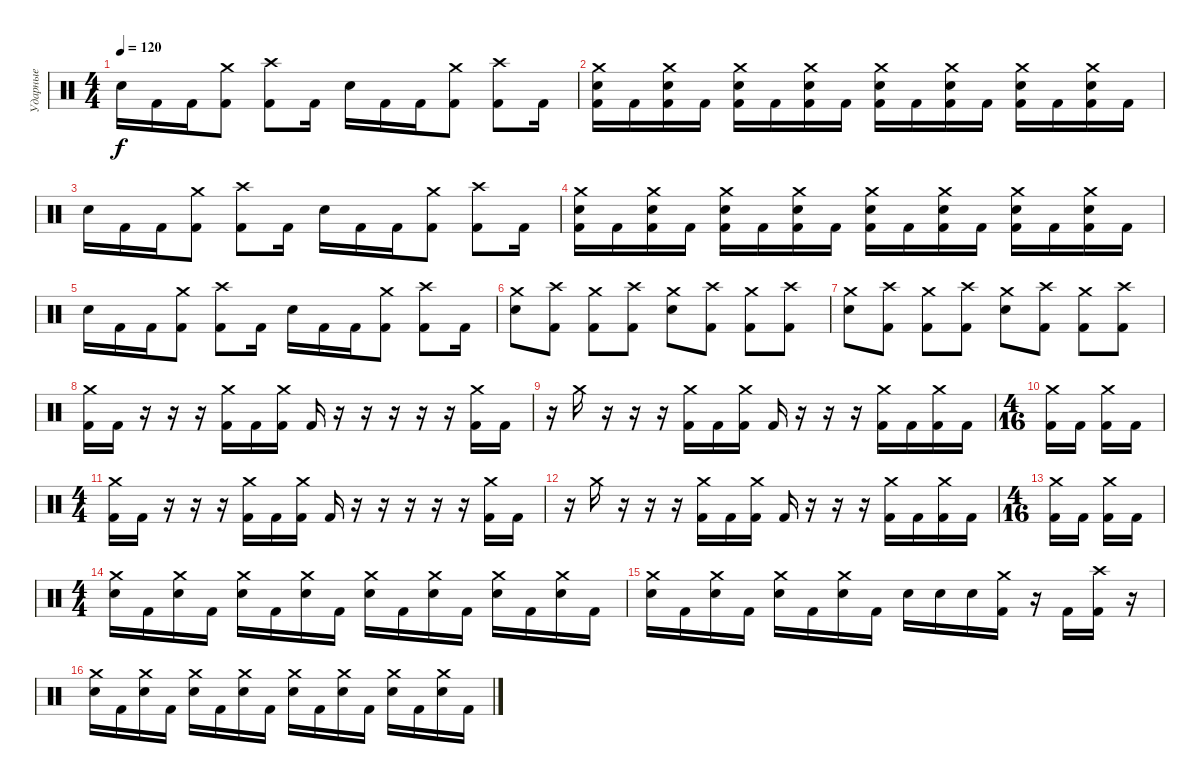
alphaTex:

\track ("Ударные" "Ударные") {instrument percussion}
\staff {score}
\articulation defaults
\ts (4 4)
\tempo 120
\clef neutral
\ks c "Electric Snare (hit)".16{dy f} "Kick (hit) 2".16 "Kick (hit) 2".16
("Crash medium (hit)" "Kick (hit) 2").8 ("Crash high (hit)" "Kick (hit) 2").8 "Kick (hit) 2".16 "Electric Snare (hit)".16 "Kick (hit) 2".16 "Kick (hit) 2".16 ("Crash medium (hit)" "Kick (hit) 2").8 ("Crash high (hit)" "Kick (hit) 2").8 "Kick (hit) 2".16 |
("Crash medium (hit)" "Electric Snare (hit)" "Kick (hit) 2").16 "Kick (hit) 2".16 ("Crash medium (hit)" "Electric Snare (hit)" "Kick (hit) 2").16 "Kick (hit) 2".16 ("Crash medium (hit)" "Electric Snare (hit)" "Kick (hit) 2").16 "Kick (hit) 2".16 ("Crash medium (hit)" "Electric Snare (hit)" "Kick (hit) 2").16 "Kick (hit) 2".16 ("Crash medium (hit)" "Electric Snare (hit)" "Kick (hit) 2").16 "Kick (hit) 2".16 ("Crash medium (hit)" "Electric Snare (hit)" "Kick (hit) 2").16 "Kick (hit) 2".16 ("Crash medium (hit)" "Electric Snare (hit)" "Kick (hit) 2").16 "Kick (hit) 2".16 ("Crash medium (hit)" "Electric Snare (hit)" "Kick (hit) 2").16 "Kick (hit) 2".16 |
"Electric Snare (hit)".16 "Kick (hit) 2".16 "Kick (hit) 2".16 ("Crash medium (hit)" "Kick (hit) 2").8 ("Crash high (hit)" "Kick (hit) 2").8 "Kick (hit) 2".16 "Electric Snare (hit)".16 "Kick (hit) 2".16 "Kick (hit) 2".16 ("Crash medium (hit)" "Kick (hit) 2").8 ("Crash high (hit)" "Kick (hit) 2").8 "Kick (hit) 2".16 |
("Crash medium (hit)" "Electric Snare (hit)" "Kick (hit) 2").16 "Kick (hit) 2".16 ("Crash medium (hit)" "Electric Snare (hit)" "Kick (hit) 2").16 "Kick (hit) 2".16 ("Crash medium (hit)" "Electric Snare (hit)" "Kick (hit) 2").16 "Kick (hit) 2".16 ("Crash medium (hit)" "Electric Snare (hit)" "Kick (hit) 2").16 "Kick (hit) 2".16 ("Crash medium (hit)" "Electric Snare (hit)" "Kick (hit) 2").16 "Kick (hit) 2".16 ("Crash medium (hit)" "Electric Snare (hit)" "Kick (hit) 2").16 "Kick (hit) 2".16 ("Crash medium (hit)" "Electric Snare (hit)" "Kick (hit) 2").16 "Kick (hit) 2".16 ("Crash medium (hit)" "Electric Snare (hit)" "Kick (hit) 2").16 "Kick (hit) 2".16 |
"Electric Snare (hit)".16 "Kick (hit) 2".16 "Kick (hit) 2".16 ("Crash medium (hit)" "Kick (hit) 2").8 ("Crash high (hit)" "Kick (hit) 2").8 "Kick (hit) 2".16 "Electric Snare (hit)".16 "Kick (hit) 2".16 "Kick (hit) 2".16 ("Crash medium (hit)" "Kick (hit) 2").8 ("Crash high (hit)" "Kick (hit) 2").8 "Kick (hit) 2".16 |
("Crash medium (hit)" "Electric Snare (hit)").8 ("Crash high (hit)" "Kick (hit) 2").8 ("Crash medium (hit)" "Kick (hit) 2").8 ("Crash high (hit)" "Kick (hit) 2").8 ("Crash medium (hit)" "Electric Snare (hit)").8 ("Crash high (hit)" "Kick (hit) 2").8 ("Crash medium (hit)" "Kick (hit) 2").8 ("Crash high (hit)" "Kick (hit) 2").8 |
("Crash medium (hit)" "Electric Snare (hit)").8 ("Crash high (hit)" "Kick (hit) 2").8 ("Crash medium (hit)" "Kick (hit) 2").8 ("Crash high (hit)" "Kick (hit) 2").8 ("Crash medium (hit)" "Electric Snare (hit)").8 ("Crash high (hit)" "Kick (hit) 2").8 ("Crash medium (hit)" "Kick (hit) 2").8 ("Crash high (hit)" "Kick (hit) 2").8 |
("Crash medium (hit)" "Kick (hit) 2").16 "Kick (hit) 2".16 r.16 r.16 r.16 ("Crash medium (hit)" "Kick (hit) 2").16 "Kick (hit) 2".16 ("Crash medium (hit)" "Kick (hit) 2").16 "Kick (hit) 2".16 r.16 r.16 r.16 r.16 r.16 ("Crash medium (hit)" "Kick (hit) 2").16 "Kick (hit) 2".16 |
r.16 "Crash medium (hit)".16 r.16 r.16 r.16 ("Crash medium (hit)" "Kick (hit) 2").16 "Kick (hit) 2".16 ("Crash medium (hit)" "Kick (hit) 2").16 "Kick (hit) 2".16 r.16 r.16 r.16 ("Crash medium (hit)" "Kick (hit) 2").16 "Kick (hit) 2".16 ("Crash medium (hit)" "Kick (hit) 2").16 "Kick (hit) 2".16 |
\ts (4 16)
("Crash medium (hit)" "Kick (hit) 2").16 "Kick (hit) 2".16 ("Crash medium (hit)" "Kick (hit) 2").16 "Kick (hit) 2".16 |
\ts (4 4)
("Crash medium (hit)" "Kick (hit) 2").16 "Kick (hit) 2".16 r.16 r.16 r.16 ("Crash medium (hit)" "Kick (hit) 2").16 "Kick (hit) 2".16 ("Crash medium (hit)" "Kick (hit) 2").16 "Kick (hit) 2".16 r.16 r.16 r.16 r.16 r.16 ("Crash medium (hit)" "Kick (hit) 2").16 "Kick (hit) 2".16 |
r.16 "Crash medium (hit)".16 r.16 r.16 r.16 ("Crash medium (hit)" "Kick (hit) 2").16 "Kick (hit) 2".16 ("Crash medium (hit)" "Kick (hit) 2").16 "Kick (hit) 2".16 r.16 r.16 r.16 ("Crash medium (hit)" "Kick (hit) 2").16 "Kick (hit) 2".16 ("Crash medium (hit)" "Kick (hit) 2").16 "Kick (hit) 2".16 |
\ts (4 16)
("Crash medium (hit)" "Kick (hit) 2").16 "Kick (hit) 2".16 ("Crash medium (hit)" "Kick (hit) 2").16 "Kick (hit) 2".16 |
\ts (4 4)
("Crash medium (hit)" "Electric Snare (hit)").16 "Kick (hit) 2".16 ("Crash medium (hit)" "Electric Snare (hit)").16 "Kick (hit) 2".16 ("Crash medium (hit)" "Electric Snare (hit)").16 "Kick (hit) 2".16 ("Crash medium (hit)" "Electric Snare (hit)").16 "Kick (hit) 2".16 ("Crash medium (hit)" "Electric Snare (hit)").16 "Kick (hit) 2".16 ("Crash medium (hit)" "Electric Snare (hit)").16 "Kick (hit) 2".16 ("Crash medium (hit)" "Electric Snare (hit)").16 "Kick (hit) 2".16 ("Crash medium (hit)" "Electric Snare (hit)").16 "Kick (hit) 2".16 |
("Crash medium (hit)" "Electric Snare (hit)").16 "Kick (hit) 2".16 ("Crash medium (hit)" "Electric Snare (hit)").16 "Kick (hit) 2".16 ("Crash medium (hit)" "Electric Snare (hit)").16 "Kick (hit) 2".16 ("Crash medium (hit)" "Electric Snare (hit)").16 "Kick (hit) 2".16 "Electric Snare (hit)".16 "Electric Snare (hit)".16 "Electric Snare (hit)".16 ("Crash medium (hit)" "Kick (hit) 2").16 r.16 "Kick (hit) 2".16 ("Crash high (hit)" "Kick (hit) 2").16 r.16 |
("Crash medium (hit)" "Electric Snare (hit)").16 "Kick (hit) 2".16 ("Crash medium (hit)" "Electric Snare (hit)").16 "Kick (hit) 2".16 ("Crash medium (hit)" "Electric Snare (hit)").16 "Kick (hit) 2".16 ("Crash medium (hit)" "Electric Snare (hit)").16 "Kick (hit) 2".16 ("Crash medium (hit)" "Electric Snare (hit)").16 "Kick (hit) 2".16 ("Crash medium (hit)" "Electric Snare (hit)").16 "Kick (hit) 2".16 ("Crash medium (hit)" "Electric Snare (hit)").16 "Kick (hit) 2".16 ("Crash medium (hit)" "Electric Snare (hit)").16 "Kick (hit) 2".16
